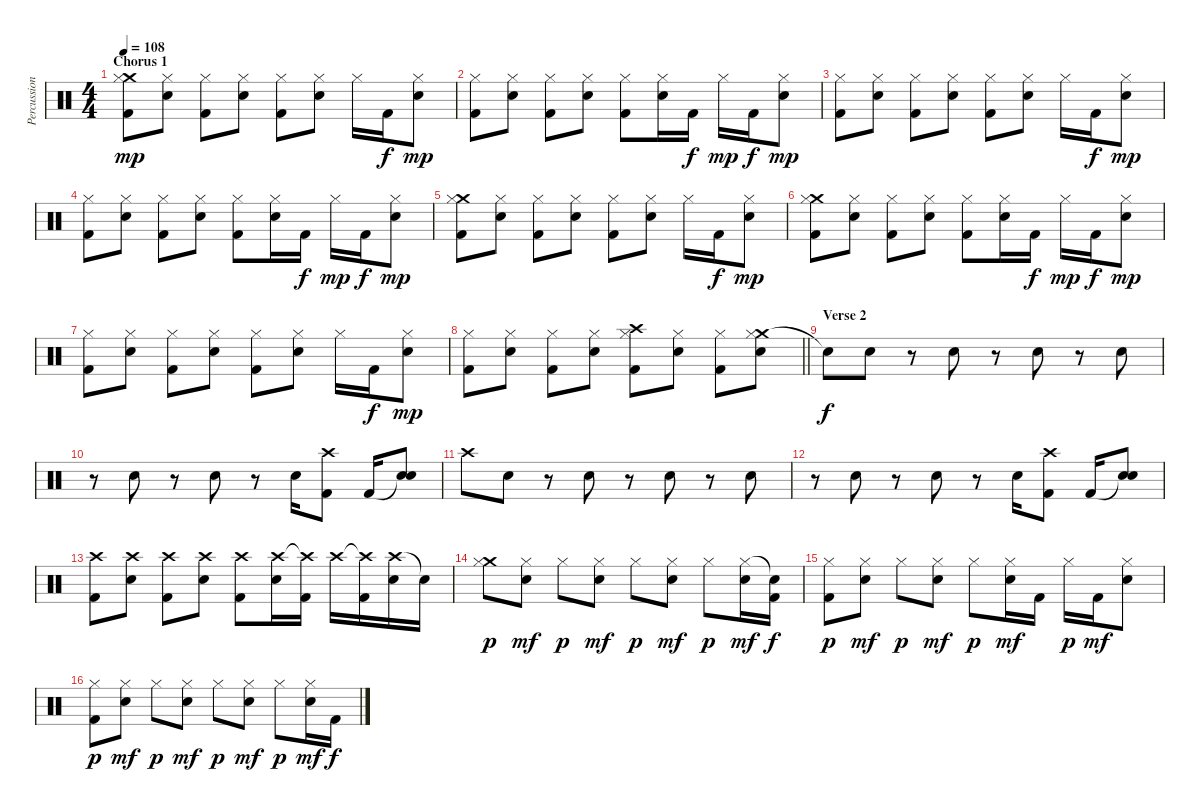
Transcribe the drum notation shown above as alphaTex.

\track ("Percussion" "Percussion") {instrument percussion}
\staff {score}
\articulation defaults
\ts (4 4)
\section ("" "Chorus 1")
\tempo 108
\clef neutral
\ks c
("Crash medium (hit)" "Hi-Hat (closed)" "Kick (hit) 2").8{dy mp} ("Hi-Hat (closed)" "Snare (hit) 2").8 ("Hi-Hat (closed)" "Kick (hit) 2").8 ("Hi-Hat (closed)" "Snare (hit) 2").8 ("Hi-Hat (closed)" "Kick (hit) 2").8 ("Hi-Hat (closed)" "Snare (hit) 2").8 "Hi-Hat (closed)".16 "Kick (hit) 2".16{dy f} ("Hi-Hat (closed)" "Snare (hit) 2").8{dy mp} |
("Hi-Hat (closed)" "Kick (hit) 2").8 ("Hi-Hat (closed)" "Snare (hit) 2").8 ("Hi-Hat (closed)" "Kick (hit) 2").8 ("Hi-Hat (closed)" "Snare (hit) 2").8 ("Hi-Hat (closed)" "Kick (hit) 2").8 ("Hi-Hat (closed)" "Snare (hit) 2").16 "Kick (hit) 2".16{dy f} "Hi-Hat (closed)".16{dy mp} "Kick (hit) 2".16{dy f} ("Hi-Hat (closed)" "Snare (hit) 2").8{dy mp} |
("Hi-Hat (closed)" "Kick (hit) 2").8 ("Hi-Hat (closed)" "Snare (hit) 2").8 ("Hi-Hat (closed)" "Kick (hit) 2").8 ("Hi-Hat (closed)" "Snare (hit) 2").8 ("Hi-Hat (closed)" "Kick (hit) 2").8 ("Hi-Hat (closed)" "Snare (hit) 2").8 "Hi-Hat (closed)".16 "Kick (hit) 2".16{dy f} ("Hi-Hat (closed)" "Snare (hit) 2").8{dy mp} |
("Hi-Hat (closed)" "Kick (hit) 2").8 ("Hi-Hat (closed)" "Snare (hit) 2").8 ("Hi-Hat (closed)" "Kick (hit) 2").8 ("Hi-Hat (closed)" "Snare (hit) 2").8 ("Hi-Hat (closed)" "Kick (hit) 2").8 ("Hi-Hat (closed)" "Snare (hit) 2").16 "Kick (hit) 2".16{dy f} "Hi-Hat (closed)".16{dy mp} "Kick (hit) 2".16{dy f} ("Hi-Hat (closed)" "Snare (hit) 2").8{dy mp} |
("Crash medium (hit)" "Hi-Hat (closed)" "Kick (hit) 2").8 ("Hi-Hat (closed)" "Snare (hit) 2").8 ("Hi-Hat (closed)" "Kick (hit) 2").8 ("Hi-Hat (closed)" "Snare (hit) 2").8 ("Hi-Hat (closed)" "Kick (hit) 2").8 ("Hi-Hat (closed)" "Snare (hit) 2").8 "Hi-Hat (closed)".16 "Kick (hit) 2".16{dy f} ("Hi-Hat (closed)" "Snare (hit) 2").8{dy mp} |
("Crash medium (hit)" "Hi-Hat (closed)" "Kick (hit) 2").8 ("Hi-Hat (closed)" "Snare (hit) 2").8 ("Hi-Hat (closed)" "Kick (hit) 2").8 ("Hi-Hat (closed)" "Snare (hit) 2").8 ("Hi-Hat (closed)" "Kick (hit) 2").8 ("Hi-Hat (closed)" "Snare (hit) 2").16 "Kick (hit) 2".16{dy f} "Hi-Hat (closed)".16{dy mp} "Kick (hit) 2".16{dy f} ("Hi-Hat (closed)" "Snare (hit) 2").8{dy mp} |
("Hi-Hat (closed)" "Kick (hit) 2").8 ("Hi-Hat (closed)" "Snare (hit) 2").8 ("Hi-Hat (closed)" "Kick (hit) 2").8 ("Hi-Hat (closed)" "Snare (hit) 2").8 ("Hi-Hat (closed)" "Kick (hit) 2").8 ("Hi-Hat (closed)" "Snare (hit) 2").8 "Hi-Hat (closed)".16 "Kick (hit) 2".16{dy f} ("Hi-Hat (closed)" "Snare (hit) 2").8{dy mp} |
\barLineRight lightlight
("Hi-Hat (closed)" "Kick (hit) 2").8 ("Hi-Hat (closed)" "Snare (hit) 2").8 ("Hi-Hat (closed)" "Kick (hit) 2").8 ("Hi-Hat (closed)" "Snare (hit) 2").8 ("Crash high (hit)" "Hi-Hat (closed)" "Kick (hit) 2").8 ("Hi-Hat (closed)" "Snare (hit) 2").8 ("Hi-Hat (closed)" "Kick (hit) 2").8 ("Crash medium (hit)" "Hi-Hat (closed)" "Snare (hit) 2").8 |
\section ("" "Verse 2")
"Snare (hit)"{t}.8{dy f} "Snare (hit) 2".8 r.8 "Snare (hit) 2".8 r.8 "Snare (hit) 2".8 r.8 "Snare (hit) 2".8 |
r.8 "Snare (hit) 2".8 r.8 "Snare (hit) 2".8 r.8 "Snare (hit) 2".16 ("Crash high (hit)" "Kick (hit) 2").8 "Kick (hit) 2".16 ("Snare (hit)"{t} "Snare (hit) 2").8 |
"Crash high (hit)".8 "Snare (hit) 2".8 r.8 "Snare (hit) 2".8 r.8 "Snare (hit) 2".8 r.8 "Snare (hit) 2".8 |
r.8 "Snare (hit) 2".8 r.8 "Snare (hit) 2".8 r.8 "Snare (hit) 2".16 ("Crash high (hit)" "Kick (hit) 2").8 "Kick (hit) 2".16 ("Snare (hit)"{t} "Snare (hit) 2").8 |
("Crash high (hit)" "Kick (hit) 2").8 ("Crash high (hit)" "Snare (hit) 2").8 ("Crash high (hit)" "Kick (hit) 2").8 ("Crash high (hit)" "Snare (hit) 2").8 ("Crash high (hit)" "Kick (hit) 2").8 ("Crash high (hit)" "Snare (hit) 2").16 ("Crash high (hit)"{t} "Kick (hit) 2").16 "Crash high (hit)".16 ("Crash high (hit)"{t} "Kick (hit) 2").16 ("Crash high (hit)" "Snare (hit) 2").16 "Snare (hit)"{t}.16 |
("Crash medium (hit)" "Hi-Hat (closed)").8{dy p} ("Hi-Hat (closed)" "Snare (hit) 2").8{dy mf} "Hi-Hat (closed)".8{dy p} ("Hi-Hat (closed)" "Snare (hit) 2").8{dy mf} "Hi-Hat (closed)".8{dy p} ("Hi-Hat (closed)" "Snare (hit) 2").8{dy mf} "Hi-Hat (closed)".8{dy p} ("Hi-Hat (closed)" "Snare (hit) 2").16{dy mf} ("Snare (hit)"{t} "Kick (hit) 2").16{dy f} |
("Hi-Hat (closed)" "Kick (hit) 2").8{dy p} ("Hi-Hat (closed)" "Snare (hit) 2").8{dy mf} "Hi-Hat (closed)".8{dy p} ("Hi-Hat (closed)" "Snare (hit) 2").8{dy mf} "Hi-Hat (closed)".8{dy p} ("Hi-Hat (closed)" "Snare (hit) 2").16{dy mf} "Kick (hit) 2".16 "Hi-Hat (closed)".16{dy p} "Kick (hit) 2".16{dy mf} ("Hi-Hat (closed)" "Snare (hit) 2").8 |
("Hi-Hat (closed)" "Kick (hit) 2").8{dy p} ("Hi-Hat (closed)" "Snare (hit) 2").8{dy mf} "Hi-Hat (closed)".8{dy p} ("Hi-Hat (closed)" "Snare (hit) 2").8{dy mf} "Hi-Hat (closed)".8{dy p} ("Hi-Hat (closed)" "Snare (hit) 2").8{dy mf} "Hi-Hat (closed)".8{dy p} ("Hi-Hat (closed)" "Snare (hit) 2").16{dy mf} "Kick (hit) 2".16{dy f}
